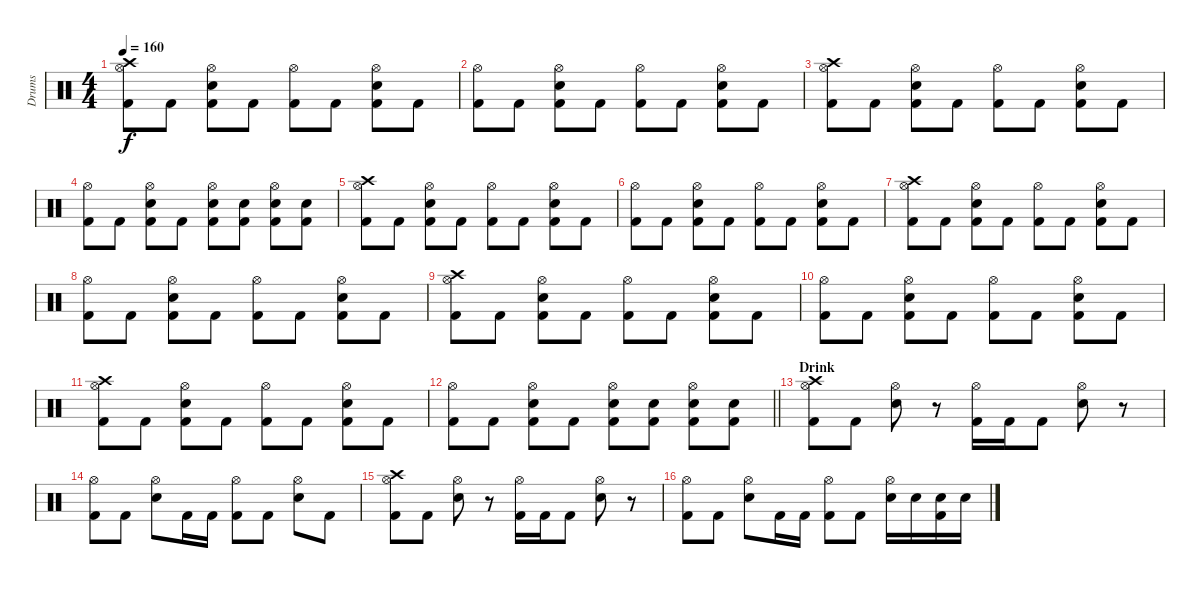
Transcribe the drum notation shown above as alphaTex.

\track ("Drums" "Drums") {instrument percussion}
\staff {score}
\articulation defaults
\ts (4 4)
\tempo 160
\clef neutral
\ks c
("Crash high (hit)" "Hi-Hat (open)" "Kick (hit) 2").8{dy f} "Kick (hit) 2".8 ("Hi-Hat (open)" "Snare (hit) 2" "Kick (hit) 2").8 "Kick (hit) 2".8 ("Hi-Hat (open)" "Kick (hit) 2").8 "Kick (hit) 2".8 ("Hi-Hat (open)" "Snare (hit) 2" "Kick (hit) 2").8 "Kick (hit) 2".8 |
("Hi-Hat (open)" "Kick (hit) 2").8 "Kick (hit) 2".8 ("Hi-Hat (open)" "Snare (hit) 2" "Kick (hit) 2").8 "Kick (hit) 2".8 ("Hi-Hat (open)" "Kick (hit) 2").8 "Kick (hit) 2".8 ("Hi-Hat (open)" "Snare (hit) 2" "Kick (hit) 2").8 "Kick (hit) 2".8 |
("Crash high (hit)" "Hi-Hat (open)" "Kick (hit) 2").8 "Kick (hit) 2".8 ("Hi-Hat (open)" "Snare (hit) 2" "Kick (hit) 2").8 "Kick (hit) 2".8 ("Hi-Hat (open)" "Kick (hit) 2").8 "Kick (hit) 2".8 ("Hi-Hat (open)" "Snare (hit) 2" "Kick (hit) 2").8 "Kick (hit) 2".8 |
("Hi-Hat (open)" "Kick (hit) 2").8 "Kick (hit) 2".8 ("Hi-Hat (open)" "Snare (hit) 2" "Kick (hit) 2").8 "Kick (hit) 2".8 ("Hi-Hat (open)" "Snare (hit) 2" "Kick (hit) 2").8 ("Snare (hit) 2" "Kick (hit) 2").8 ("Hi-Hat (open)" "Snare (hit) 2" "Kick (hit) 2").8 ("Snare (hit) 2" "Kick (hit) 2").8 |
("Crash high (hit)" "Hi-Hat (open)" "Kick (hit) 2").8 "Kick (hit) 2".8 ("Hi-Hat (open)" "Snare (hit) 2" "Kick (hit) 2").8 "Kick (hit) 2".8 ("Hi-Hat (open)" "Kick (hit) 2").8 "Kick (hit) 2".8 ("Hi-Hat (open)" "Snare (hit) 2" "Kick (hit) 2").8 "Kick (hit) 2".8 |
("Hi-Hat (open)" "Kick (hit) 2").8 "Kick (hit) 2".8 ("Hi-Hat (open)" "Snare (hit) 2" "Kick (hit) 2").8 "Kick (hit) 2".8 ("Hi-Hat (open)" "Kick (hit) 2").8 "Kick (hit) 2".8 ("Hi-Hat (open)" "Snare (hit) 2" "Kick (hit) 2").8 "Kick (hit) 2".8 |
("Crash high (hit)" "Hi-Hat (open)" "Kick (hit) 2").8 "Kick (hit) 2".8 ("Hi-Hat (open)" "Snare (hit) 2" "Kick (hit) 2").8 "Kick (hit) 2".8 ("Hi-Hat (open)" "Kick (hit) 2").8 "Kick (hit) 2".8 ("Hi-Hat (open)" "Snare (hit) 2" "Kick (hit) 2").8 "Kick (hit) 2".8 |
("Hi-Hat (open)" "Kick (hit) 2").8 "Kick (hit) 2".8 ("Hi-Hat (open)" "Snare (hit) 2" "Kick (hit) 2").8 "Kick (hit) 2".8 ("Hi-Hat (open)" "Kick (hit) 2").8 "Kick (hit) 2".8 ("Hi-Hat (open)" "Snare (hit) 2" "Kick (hit) 2").8 "Kick (hit) 2".8 |
("Crash high (hit)" "Hi-Hat (open)" "Kick (hit) 2").8 "Kick (hit) 2".8 ("Hi-Hat (open)" "Snare (hit) 2" "Kick (hit) 2").8 "Kick (hit) 2".8 ("Hi-Hat (open)" "Kick (hit) 2").8 "Kick (hit) 2".8 ("Hi-Hat (open)" "Snare (hit) 2" "Kick (hit) 2").8 "Kick (hit) 2".8 |
("Hi-Hat (open)" "Kick (hit) 2").8 "Kick (hit) 2".8 ("Hi-Hat (open)" "Snare (hit) 2" "Kick (hit) 2").8 "Kick (hit) 2".8 ("Hi-Hat (open)" "Kick (hit) 2").8 "Kick (hit) 2".8 ("Hi-Hat (open)" "Snare (hit) 2" "Kick (hit) 2").8 "Kick (hit) 2".8 |
("Crash high (hit)" "Hi-Hat (open)" "Kick (hit) 2").8 "Kick (hit) 2".8 ("Hi-Hat (open)" "Snare (hit) 2" "Kick (hit) 2").8 "Kick (hit) 2".8 ("Hi-Hat (open)" "Kick (hit) 2").8 "Kick (hit) 2".8 ("Hi-Hat (open)" "Snare (hit) 2" "Kick (hit) 2").8 "Kick (hit) 2".8 |
\barLineRight lightlight
("Hi-Hat (open)" "Kick (hit) 2").8 "Kick (hit) 2".8 ("Hi-Hat (open)" "Snare (hit) 2" "Kick (hit) 2").8 "Kick (hit) 2".8 ("Hi-Hat (open)" "Snare (hit) 2" "Kick (hit) 2").8 ("Snare (hit) 2" "Kick (hit) 2").8 ("Hi-Hat (open)" "Snare (hit) 2" "Kick (hit) 2").8 ("Snare (hit) 2" "Kick (hit) 2").8 |
\section ("" "Drink")
("Crash high (hit)" "Hi-Hat (open)" "Kick (hit) 2").8 "Kick (hit) 2".8 ("Hi-Hat (open)" "Snare (hit) 2").8 r.8 ("Hi-Hat (open)" "Kick (hit) 2").16 "Kick (hit) 2".16 "Kick (hit) 2".8 ("Hi-Hat (open)" "Snare (hit) 2").8 r.8 |
("Hi-Hat (open)" "Kick (hit) 2").8 "Kick (hit) 2".8 ("Hi-Hat (open)" "Snare (hit) 2").8 "Kick (hit) 2".16 "Kick (hit) 2".16 ("Hi-Hat (open)" "Kick (hit) 2").8 "Kick (hit) 2".8 ("Hi-Hat (open)" "Snare (hit) 2").8 "Kick (hit) 2".8 |
("Crash high (hit)" "Hi-Hat (open)" "Kick (hit) 2").8 "Kick (hit) 2".8 ("Hi-Hat (open)" "Snare (hit) 2").8 r.8 ("Hi-Hat (open)" "Kick (hit) 2").16 "Kick (hit) 2".16 "Kick (hit) 2".8 ("Hi-Hat (open)" "Snare (hit) 2").8 r.8 |
("Hi-Hat (open)" "Kick (hit) 2").8 "Kick (hit) 2".8 ("Hi-Hat (open)" "Snare (hit) 2").8 "Kick (hit) 2".16 "Kick (hit) 2".16 ("Hi-Hat (open)" "Kick (hit) 2").8 "Kick (hit) 2".8 ("Hi-Hat (open)" "Snare (hit) 2").16 "Snare (hit) 2".16 ("Snare (hit) 2" "Kick (hit) 2").16 "Snare (hit) 2".16
